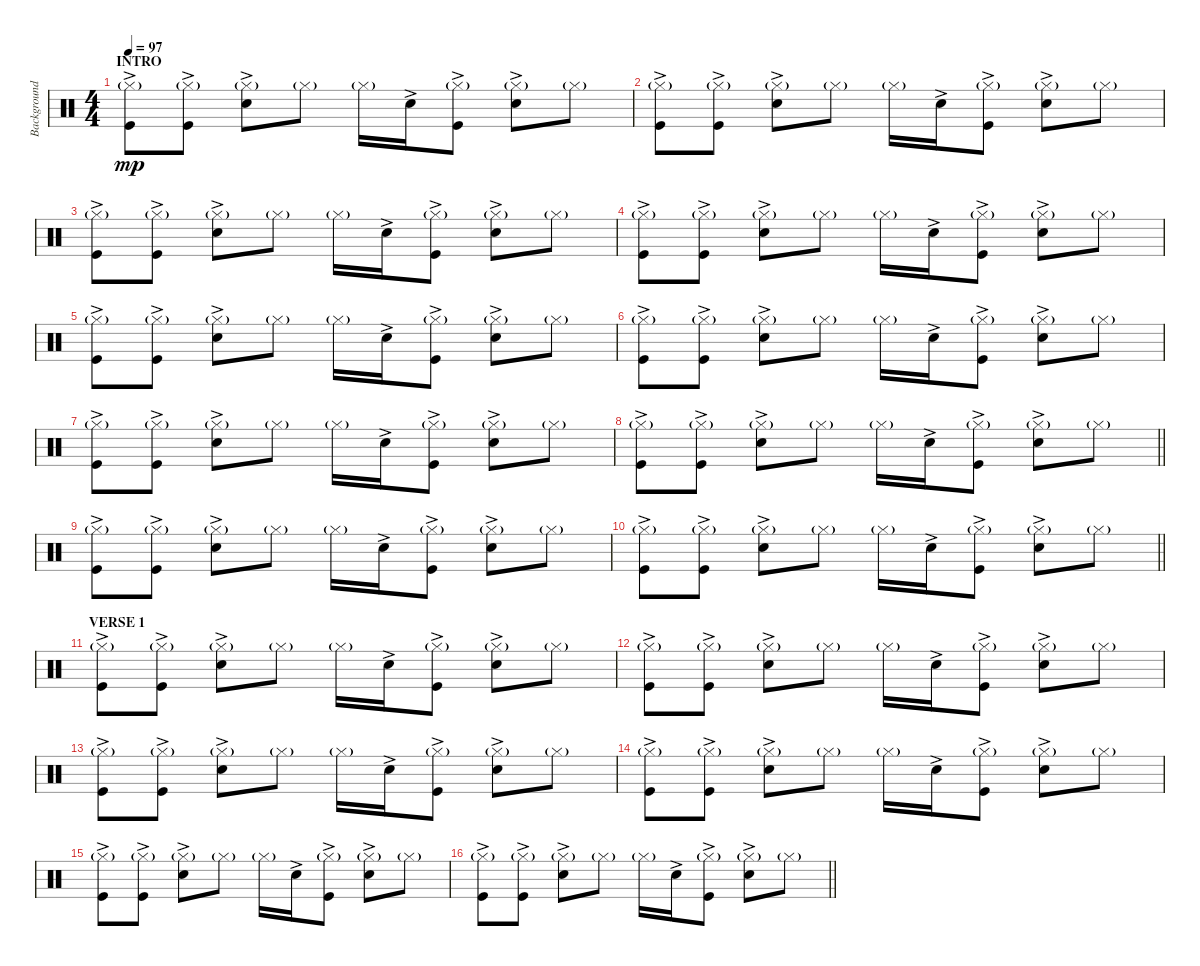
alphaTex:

\track ("Background Drums" "Background") {instrument percussion}
\staff {score}
\articulation defaults
\ts (4 4)
\section ("" "INTRO")
\tempo 97
\clef neutral
\ks c
("Hi-Hat (closed)"{g} "Kick (hit)"{ac}).8{dy mp} ("Hi-Hat (closed)"{g} "Kick (hit)"{ac}).8 ("Hi-Hat (closed)"{g} "Hand Clap (hit)"{ac}).8 "Hi-Hat (closed)"{g}.8 "Hi-Hat (closed)"{g}.16 "Hand Clap (hit)"{ac}.16 ("Hi-Hat (closed)"{g} "Kick (hit)"{ac}).8 ("Hi-Hat (closed)"{g} "Hand Clap (hit)"{ac}).8 "Hi-Hat (closed)"{g}.8 |
("Hi-Hat (closed)"{g} "Kick (hit)"{ac}).8 ("Hi-Hat (closed)"{g} "Kick (hit)"{ac}).8 ("Hi-Hat (closed)"{g} "Hand Clap (hit)"{ac}).8 "Hi-Hat (closed)"{g}.8 "Hi-Hat (closed)"{g}.16 "Hand Clap (hit)"{ac}.16 ("Hi-Hat (closed)"{g} "Kick (hit)"{ac}).8 ("Hi-Hat (closed)"{g} "Hand Clap (hit)"{ac}).8 "Hi-Hat (closed)"{g}.8 |
("Hi-Hat (closed)"{g} "Kick (hit)"{ac}).8 ("Hi-Hat (closed)"{g} "Kick (hit)"{ac}).8 ("Hi-Hat (closed)"{g} "Hand Clap (hit)"{ac}).8 "Hi-Hat (closed)"{g}.8 "Hi-Hat (closed)"{g}.16 "Hand Clap (hit)"{ac}.16 ("Hi-Hat (closed)"{g} "Kick (hit)"{ac}).8 ("Hi-Hat (closed)"{g} "Hand Clap (hit)"{ac}).8 "Hi-Hat (closed)"{g}.8 |
("Hi-Hat (closed)"{g} "Kick (hit)"{ac}).8 ("Hi-Hat (closed)"{g} "Kick (hit)"{ac}).8 ("Hi-Hat (closed)"{g} "Hand Clap (hit)"{ac}).8 "Hi-Hat (closed)"{g}.8 "Hi-Hat (closed)"{g}.16 "Hand Clap (hit)"{ac}.16 ("Hi-Hat (closed)"{g} "Kick (hit)"{ac}).8 ("Hi-Hat (closed)"{g} "Hand Clap (hit)"{ac}).8 "Hi-Hat (closed)"{g}.8 |
("Hi-Hat (closed)"{g} "Kick (hit)"{ac}).8 ("Hi-Hat (closed)"{g} "Kick (hit)"{ac}).8 ("Hi-Hat (closed)"{g} "Hand Clap (hit)"{ac}).8 "Hi-Hat (closed)"{g}.8 "Hi-Hat (closed)"{g}.16 "Hand Clap (hit)"{ac}.16 ("Hi-Hat (closed)"{g} "Kick (hit)"{ac}).8 ("Hi-Hat (closed)"{g} "Hand Clap (hit)"{ac}).8 "Hi-Hat (closed)"{g}.8 |
("Hi-Hat (closed)"{g} "Kick (hit)"{ac}).8 ("Hi-Hat (closed)"{g} "Kick (hit)"{ac}).8 ("Hi-Hat (closed)"{g} "Hand Clap (hit)"{ac}).8 "Hi-Hat (closed)"{g}.8 "Hi-Hat (closed)"{g}.16 "Hand Clap (hit)"{ac}.16 ("Hi-Hat (closed)"{g} "Kick (hit)"{ac}).8 ("Hi-Hat (closed)"{g} "Hand Clap (hit)"{ac}).8 "Hi-Hat (closed)"{g}.8 |
("Hi-Hat (closed)"{g} "Kick (hit)"{ac}).8 ("Hi-Hat (closed)"{g} "Kick (hit)"{ac}).8 ("Hi-Hat (closed)"{g} "Hand Clap (hit)"{ac}).8 "Hi-Hat (closed)"{g}.8 "Hi-Hat (closed)"{g}.16 "Hand Clap (hit)"{ac}.16 ("Hi-Hat (closed)"{g} "Kick (hit)"{ac}).8 ("Hi-Hat (closed)"{g} "Hand Clap (hit)"{ac}).8 "Hi-Hat (closed)"{g}.8 |
\barLineRight lightlight
("Hi-Hat (closed)"{g} "Kick (hit)"{ac}).8 ("Hi-Hat (closed)"{g} "Kick (hit)"{ac}).8 ("Hi-Hat (closed)"{g} "Hand Clap (hit)"{ac}).8 "Hi-Hat (closed)"{g}.8 "Hi-Hat (closed)"{g}.16 "Hand Clap (hit)"{ac}.16 ("Hi-Hat (closed)"{g} "Kick (hit)"{ac}).8 ("Hi-Hat (closed)"{g} "Hand Clap (hit)"{ac}).8 "Hi-Hat (closed)"{g}.8 |
("Hi-Hat (closed)"{g} "Kick (hit)"{ac}).8 ("Hi-Hat (closed)"{g} "Kick (hit)"{ac}).8 ("Hi-Hat (closed)"{g} "Hand Clap (hit)"{ac}).8 "Hi-Hat (closed)"{g}.8 "Hi-Hat (closed)"{g}.16 "Hand Clap (hit)"{ac}.16 ("Hi-Hat (closed)"{g} "Kick (hit)"{ac}).8 ("Hi-Hat (closed)"{g} "Hand Clap (hit)"{ac}).8 "Hi-Hat (closed)"{g}.8 |
\barLineRight lightlight
("Hi-Hat (closed)"{g} "Kick (hit)"{ac}).8 ("Hi-Hat (closed)"{g} "Kick (hit)"{ac}).8 ("Hi-Hat (closed)"{g} "Hand Clap (hit)"{ac}).8 "Hi-Hat (closed)"{g}.8 "Hi-Hat (closed)"{g}.16 "Hand Clap (hit)"{ac}.16 ("Hi-Hat (closed)"{g} "Kick (hit)"{ac}).8 ("Hi-Hat (closed)"{g} "Hand Clap (hit)"{ac}).8 "Hi-Hat (closed)"{g}.8 |
\section ("" "VERSE 1")
("Hi-Hat (closed)"{g} "Kick (hit)"{ac}).8 ("Hi-Hat (closed)"{g} "Kick (hit)"{ac}).8 ("Hi-Hat (closed)"{g} "Hand Clap (hit)"{ac}).8 "Hi-Hat (closed)"{g}.8 "Hi-Hat (closed)"{g}.16 "Hand Clap (hit)"{ac}.16 ("Hi-Hat (closed)"{g} "Kick (hit)"{ac}).8 ("Hi-Hat (closed)"{g} "Hand Clap (hit)"{ac}).8 "Hi-Hat (closed)"{g}.8 |
("Hi-Hat (closed)"{g} "Kick (hit)"{ac}).8 ("Hi-Hat (closed)"{g} "Kick (hit)"{ac}).8 ("Hi-Hat (closed)"{g} "Hand Clap (hit)"{ac}).8 "Hi-Hat (closed)"{g}.8 "Hi-Hat (closed)"{g}.16 "Hand Clap (hit)"{ac}.16 ("Hi-Hat (closed)"{g} "Kick (hit)"{ac}).8 ("Hi-Hat (closed)"{g} "Hand Clap (hit)"{ac}).8 "Hi-Hat (closed)"{g}.8 |
("Hi-Hat (closed)"{g} "Kick (hit)"{ac}).8 ("Hi-Hat (closed)"{g} "Kick (hit)"{ac}).8 ("Hi-Hat (closed)"{g} "Hand Clap (hit)"{ac}).8 "Hi-Hat (closed)"{g}.8 "Hi-Hat (closed)"{g}.16 "Hand Clap (hit)"{ac}.16 ("Hi-Hat (closed)"{g} "Kick (hit)"{ac}).8 ("Hi-Hat (closed)"{g} "Hand Clap (hit)"{ac}).8 "Hi-Hat (closed)"{g}.8 |
("Hi-Hat (closed)"{g} "Kick (hit)"{ac}).8 ("Hi-Hat (closed)"{g} "Kick (hit)"{ac}).8 ("Hi-Hat (closed)"{g} "Hand Clap (hit)"{ac}).8 "Hi-Hat (closed)"{g}.8 "Hi-Hat (closed)"{g}.16 "Hand Clap (hit)"{ac}.16 ("Hi-Hat (closed)"{g} "Kick (hit)"{ac}).8 ("Hi-Hat (closed)"{g} "Hand Clap (hit)"{ac}).8 "Hi-Hat (closed)"{g}.8 |
("Hi-Hat (closed)"{g} "Kick (hit)"{ac}).8 ("Hi-Hat (closed)"{g} "Kick (hit)"{ac}).8 ("Hi-Hat (closed)"{g} "Hand Clap (hit)"{ac}).8 "Hi-Hat (closed)"{g}.8 "Hi-Hat (closed)"{g}.16 "Hand Clap (hit)"{ac}.16 ("Hi-Hat (closed)"{g} "Kick (hit)"{ac}).8 ("Hi-Hat (closed)"{g} "Hand Clap (hit)"{ac}).8 "Hi-Hat (closed)"{g}.8 |
\barLineRight lightlight
("Hi-Hat (closed)"{g} "Kick (hit)"{ac}).8 ("Hi-Hat (closed)"{g} "Kick (hit)"{ac}).8 ("Hi-Hat (closed)"{g} "Hand Clap (hit)"{ac}).8 "Hi-Hat (closed)"{g}.8 "Hi-Hat (closed)"{g}.16 "Hand Clap (hit)"{ac}.16 ("Hi-Hat (closed)"{g} "Kick (hit)"{ac}).8 ("Hi-Hat (closed)"{g} "Hand Clap (hit)"{ac}).8 "Hi-Hat (closed)"{g}.8
